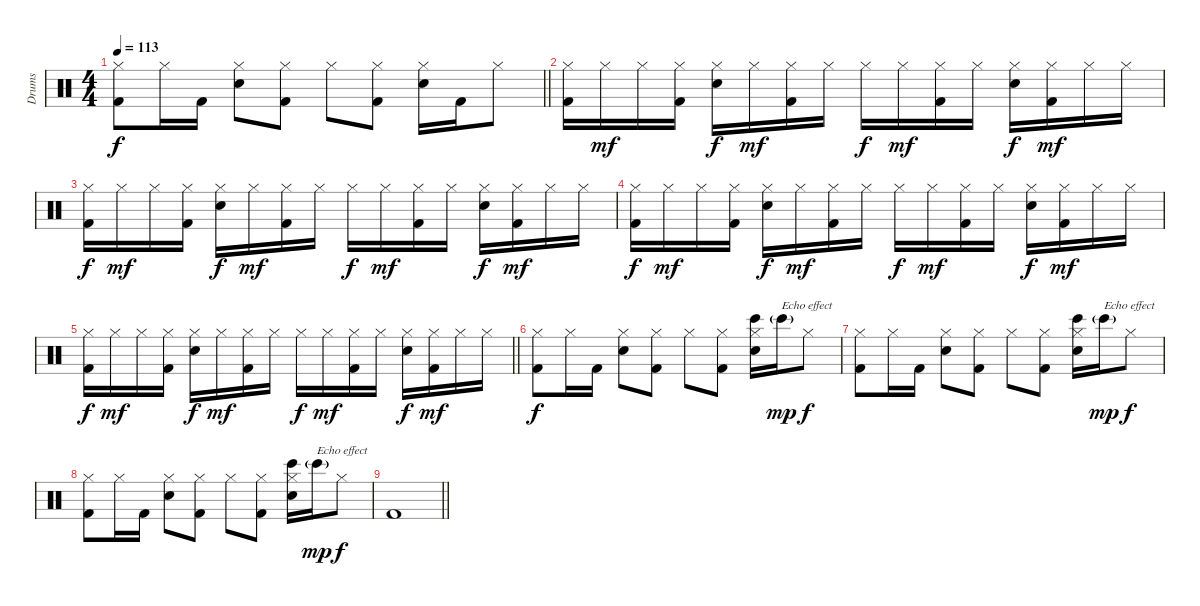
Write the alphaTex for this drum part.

\track ("Drums" "Drums") {instrument percussion}
\staff {score}
\articulation defaults
\ts (4 4)
\tempo 113
\clef neutral
\barLineRight lightlight
\ks c
("Hi-Hat (closed)" "Kick (hit) 2").8{dy f} "Hi-Hat (closed)".16 "Kick (hit) 2".16 ("Hi-Hat (closed)" "Snare (hit) 2").8 ("Hi-Hat (closed)" "Kick (hit) 2").8 "Hi-Hat (closed)".8 ("Hi-Hat (closed)" "Kick (hit) 2").8 ("Hi-Hat (closed)" "Snare (hit) 2").16 "Kick (hit) 2".16 "Hi-Hat (closed)".8 |
("Hi-Hat (closed)" "Kick (hit) 2").16 "Hi-Hat (closed)".16{dy mf} "Hi-Hat (closed)".16 ("Hi-Hat (closed)" "Kick (hit) 2").16 ("Hi-Hat (closed)" "Snare (hit) 2").16{dy f} "Hi-Hat (closed)".16{dy mf} ("Hi-Hat (closed)" "Kick (hit) 2").16 "Hi-Hat (closed)".16 "Hi-Hat (closed)".16{dy f} "Hi-Hat (closed)".16{dy mf} ("Hi-Hat (closed)" "Kick (hit) 2").16 "Hi-Hat (closed)".16 ("Hi-Hat (closed)" "Snare (hit) 2").16{dy f} ("Hi-Hat (closed)" "Kick (hit) 2").16{dy mf} "Hi-Hat (closed)".16 "Hi-Hat (closed)".16 |
("Hi-Hat (closed)" "Kick (hit) 2").16{dy f} "Hi-Hat (closed)".16{dy mf} "Hi-Hat (closed)".16 ("Hi-Hat (closed)" "Kick (hit) 2").16 ("Hi-Hat (closed)" "Snare (hit) 2").16{dy f} "Hi-Hat (closed)".16{dy mf} ("Hi-Hat (closed)" "Kick (hit) 2").16 "Hi-Hat (closed)".16 "Hi-Hat (closed)".16{dy f} "Hi-Hat (closed)".16{dy mf} ("Hi-Hat (closed)" "Kick (hit) 2").16 "Hi-Hat (closed)".16 ("Hi-Hat (closed)" "Snare (hit) 2").16{dy f} ("Hi-Hat (closed)" "Kick (hit) 2").16{dy mf} "Hi-Hat (closed)".16 "Hi-Hat (closed)".16 |
("Hi-Hat (closed)" "Kick (hit) 2").16{dy f} "Hi-Hat (closed)".16{dy mf} "Hi-Hat (closed)".16 ("Hi-Hat (closed)" "Kick (hit) 2").16 ("Hi-Hat (closed)" "Snare (hit) 2").16{dy f} "Hi-Hat (closed)".16{dy mf} ("Hi-Hat (closed)" "Kick (hit) 2").16 "Hi-Hat (closed)".16 "Hi-Hat (closed)".16{dy f} "Hi-Hat (closed)".16{dy mf} ("Hi-Hat (closed)" "Kick (hit) 2").16 "Hi-Hat (closed)".16 ("Hi-Hat (closed)" "Snare (hit) 2").16{dy f} ("Hi-Hat (closed)" "Kick (hit) 2").16{dy mf} "Hi-Hat (closed)".16 "Hi-Hat (closed)".16 |
\barLineRight lightlight
("Hi-Hat (closed)" "Kick (hit) 2").16{dy f} "Hi-Hat (closed)".16{dy mf} "Hi-Hat (closed)".16 ("Hi-Hat (closed)" "Kick (hit) 2").16 ("Hi-Hat (closed)" "Snare (hit) 2").16{dy f} "Hi-Hat (closed)".16{dy mf} ("Hi-Hat (closed)" "Kick (hit) 2").16 "Hi-Hat (closed)".16 "Hi-Hat (closed)".16{dy f} "Hi-Hat (closed)".16{dy mf} ("Hi-Hat (closed)" "Kick (hit) 2").16 "Hi-Hat (closed)".16 ("Hi-Hat (closed)" "Snare (hit) 2").16{dy f} ("Hi-Hat (closed)" "Kick (hit) 2").16{dy mf} "Hi-Hat (closed)".16 "Hi-Hat (closed)".16 |
("Hi-Hat (closed)" "Kick (hit) 2").8{dy f} "Hi-Hat (closed)".16 "Kick (hit) 2".16 ("Hi-Hat (closed)" "Snare (hit) 2").8 ("Hi-Hat (closed)" "Kick (hit) 2").8 "Hi-Hat (closed)".8 ("Hi-Hat (closed)" "Kick (hit) 2").8 ("Bongo High (hit)" "Hi-Hat (closed)" "Snare (hit) 2").16 "Bongo High (hit)"{g}.16{txt "Echo effect" dy mp} "Hi-Hat (closed)".8{dy f} |
("Hi-Hat (closed)" "Kick (hit) 2").8 "Hi-Hat (closed)".16 "Kick (hit) 2".16 ("Hi-Hat (closed)" "Snare (hit) 2").8 ("Hi-Hat (closed)" "Kick (hit) 2").8 "Hi-Hat (closed)".8 ("Hi-Hat (closed)" "Kick (hit) 2").8 ("Bongo High (hit)" "Hi-Hat (closed)" "Snare (hit) 2").16 "Bongo High (hit)"{g}.16{txt "Echo effect" dy mp} "Hi-Hat (closed)".8{dy f} |
("Hi-Hat (closed)" "Kick (hit) 2").8 "Hi-Hat (closed)".16 "Kick (hit) 2".16 ("Hi-Hat (closed)" "Snare (hit) 2").8 ("Hi-Hat (closed)" "Kick (hit) 2").8 "Hi-Hat (closed)".8 ("Hi-Hat (closed)" "Kick (hit) 2").8 ("Bongo High (hit)" "Hi-Hat (closed)" "Snare (hit) 2").16 "Bongo High (hit)"{g}.16{txt "Echo effect" dy mp} "Hi-Hat (closed)".8{dy f} |
\barLineRight lightlight "Kick (hit) 2".1
